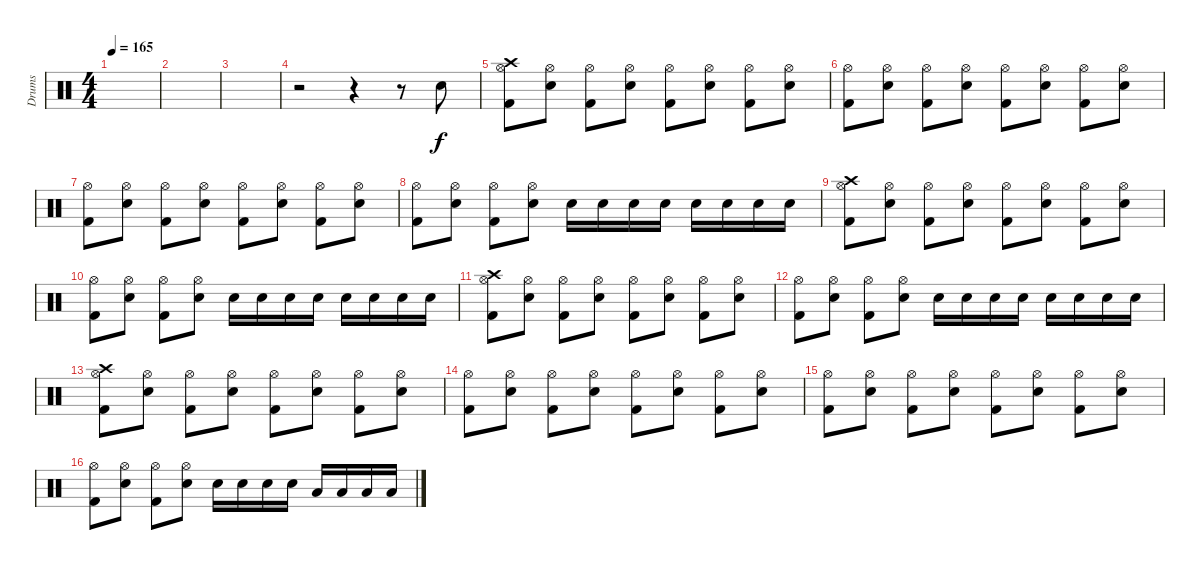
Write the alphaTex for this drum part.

\track ("Drums" "Drums") {instrument percussion}
\staff {score}
\articulation defaults
\ts (4 4)
\tempo 165
\clef neutral
\ks c
|
|
|
r.2 r.4 r.8 "Snare (hit) 2".8 |
("Crash high (hit)" "Hi-Hat (open)" "Kick (hit) 2").8 ("Hi-Hat (open)" "Snare (hit) 2").8 ("Hi-Hat (open)" "Kick (hit) 2").8 ("Hi-Hat (open)" "Snare (hit) 2").8 ("Hi-Hat (open)" "Kick (hit) 2").8 ("Hi-Hat (open)" "Snare (hit) 2").8 ("Hi-Hat (open)" "Kick (hit) 2").8 ("Hi-Hat (open)" "Snare (hit) 2").8 |
("Hi-Hat (open)" "Kick (hit) 2").8 ("Hi-Hat (open)" "Snare (hit) 2").8 ("Hi-Hat (open)" "Kick (hit) 2").8 ("Hi-Hat (open)" "Snare (hit) 2").8 ("Hi-Hat (open)" "Kick (hit) 2").8 ("Hi-Hat (open)" "Snare (hit) 2").8 ("Hi-Hat (open)" "Kick (hit) 2").8 ("Hi-Hat (open)" "Snare (hit) 2").8 |
("Hi-Hat (open)" "Kick (hit) 2").8 ("Hi-Hat (open)" "Snare (hit) 2").8 ("Hi-Hat (open)" "Kick (hit) 2").8 ("Hi-Hat (open)" "Snare (hit) 2").8 ("Hi-Hat (open)" "Kick (hit) 2").8 ("Hi-Hat (open)" "Snare (hit) 2").8 ("Hi-Hat (open)" "Kick (hit) 2").8 ("Hi-Hat (open)" "Snare (hit) 2").8 |
("Hi-Hat (open)" "Kick (hit) 2").8 ("Hi-Hat (open)" "Snare (hit) 2").8 ("Hi-Hat (open)" "Kick (hit) 2").8 ("Hi-Hat (open)" "Snare (hit) 2").8 "Snare (hit) 2".16 "Snare (hit) 2".16 "Snare (hit) 2".16 "Snare (hit) 2".16 "Snare (hit) 2".16 "Snare (hit) 2".16 "Snare (hit) 2".16 "Snare (hit) 2".16 |
("Crash high (hit)" "Hi-Hat (open)" "Kick (hit) 2").8 ("Hi-Hat (open)" "Snare (hit) 2").8 ("Hi-Hat (open)" "Kick (hit) 2").8 ("Hi-Hat (open)" "Snare (hit) 2").8 ("Hi-Hat (open)" "Kick (hit) 2").8 ("Hi-Hat (open)" "Snare (hit) 2").8 ("Hi-Hat (open)" "Kick (hit) 2").8 ("Hi-Hat (open)" "Snare (hit) 2").8 |
("Hi-Hat (open)" "Kick (hit) 2").8 ("Hi-Hat (open)" "Snare (hit) 2").8 ("Hi-Hat (open)" "Kick (hit) 2").8 ("Hi-Hat (open)" "Snare (hit) 2").8 "Snare (hit) 2".16 "Snare (hit) 2".16 "Snare (hit) 2".16 "Snare (hit) 2".16 "Snare (hit) 2".16 "Snare (hit) 2".16 "Snare (hit) 2".16 "Snare (hit) 2".16 |
("Crash high (hit)" "Hi-Hat (open)" "Kick (hit) 2").8 ("Hi-Hat (open)" "Snare (hit) 2").8 ("Hi-Hat (open)" "Kick (hit) 2").8 ("Hi-Hat (open)" "Snare (hit) 2").8 ("Hi-Hat (open)" "Kick (hit) 2").8 ("Hi-Hat (open)" "Snare (hit) 2").8 ("Hi-Hat (open)" "Kick (hit) 2").8 ("Hi-Hat (open)" "Snare (hit) 2").8 |
("Hi-Hat (open)" "Kick (hit) 2").8 ("Hi-Hat (open)" "Snare (hit) 2").8 ("Hi-Hat (open)" "Kick (hit) 2").8 ("Hi-Hat (open)" "Snare (hit) 2").8 "Snare (hit) 2".16 "Snare (hit) 2".16 "Snare (hit) 2".16 "Snare (hit) 2".16 "Snare (hit) 2".16 "Snare (hit) 2".16 "Snare (hit) 2".16 "Snare (hit) 2".16 |
("Crash high (hit)" "Hi-Hat (open)" "Kick (hit) 2").8 ("Hi-Hat (open)" "Snare (hit) 2").8 ("Hi-Hat (open)" "Kick (hit) 2").8 ("Hi-Hat (open)" "Snare (hit) 2").8 ("Hi-Hat (open)" "Kick (hit) 2").8 ("Hi-Hat (open)" "Snare (hit) 2").8 ("Hi-Hat (open)" "Kick (hit) 2").8 ("Hi-Hat (open)" "Snare (hit) 2").8 |
("Hi-Hat (open)" "Kick (hit) 2").8 ("Hi-Hat (open)" "Snare (hit) 2").8 ("Hi-Hat (open)" "Kick (hit) 2").8 ("Hi-Hat (open)" "Snare (hit) 2").8 ("Hi-Hat (open)" "Kick (hit) 2").8 ("Hi-Hat (open)" "Snare (hit) 2").8 ("Hi-Hat (open)" "Kick (hit) 2").8 ("Hi-Hat (open)" "Snare (hit) 2").8 |
("Hi-Hat (open)" "Kick (hit) 2").8 ("Hi-Hat (open)" "Snare (hit) 2").8 ("Hi-Hat (open)" "Kick (hit) 2").8 ("Hi-Hat (open)" "Snare (hit) 2").8 ("Hi-Hat (open)" "Kick (hit) 2").8 ("Hi-Hat (open)" "Snare (hit) 2").8 ("Hi-Hat (open)" "Kick (hit) 2").8 ("Hi-Hat (open)" "Snare (hit) 2").8 |
("Hi-Hat (open)" "Kick (hit) 2").8 ("Hi-Hat (open)" "Snare (hit) 2").8 ("Hi-Hat (open)" "Kick (hit) 2").8 ("Hi-Hat (open)" "Snare (hit) 2").8 "Snare (hit) 2".16 "Snare (hit) 2".16 "Snare (hit) 2".16 "Snare (hit) 2".16 "Low Floor Tom (hit)".16 "Low Floor Tom (hit)".16 "Low Floor Tom (hit)".16 "Low Floor Tom (hit)".16
